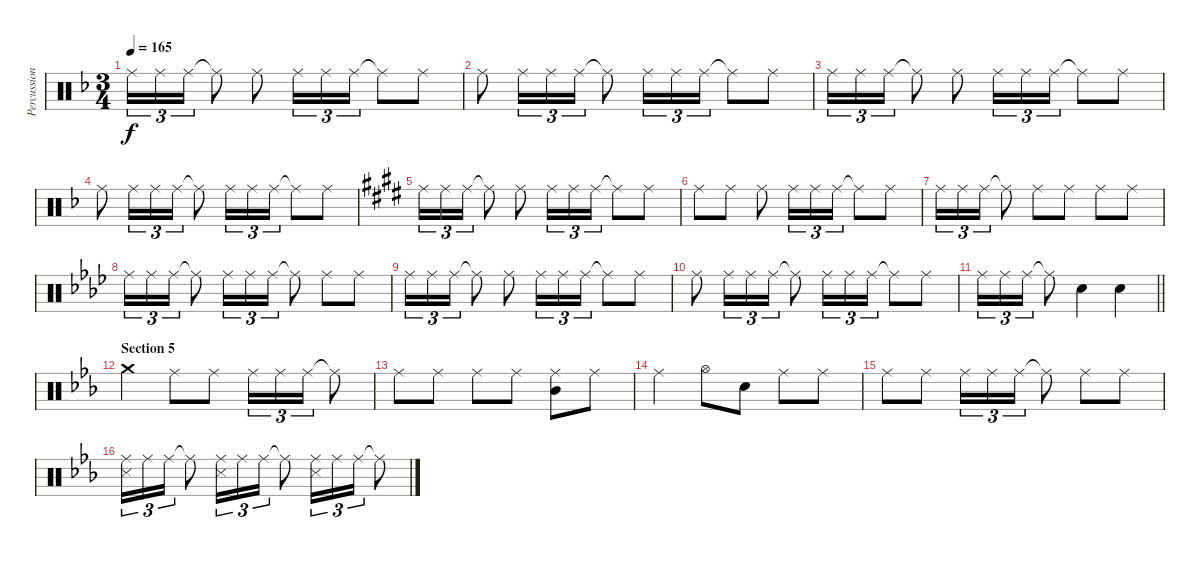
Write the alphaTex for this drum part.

\track ("Percussion" "Percussion") {instrument percussion}
\staff {score}
\articulation defaults
\ts (3 4)
\tempo 165
\clef neutral
\ks f "Ride (middle)".16{tu (3 2) dy f} "Ride (middle)".16{tu (3 2)} "Ride (middle)".16{tu (3 2)} "Ride (middle)"{t}.8 "Ride (middle)".8 "Ride (middle)".16{tu (3 2)} "Ride (middle)".16{tu (3 2)} "Ride (middle)".16{tu (3 2)} "Ride (middle)"{t}.8 "Ride (middle)".8
|
"Ride (middle)".8 "Ride (middle)".16{tu (3 2)} "Ride (middle)".16{tu (3 2)} "Ride (middle)".16{tu (3 2)} "Ride (middle)"{t}.8 "Ride (middle)".16{tu (3 2)} "Ride (middle)".16{tu (3 2)} "Ride (middle)".16{tu (3 2)} "Ride (middle)"{t}.8 "Ride (middle)".8 |
"Ride (middle)".16{tu (3 2)} "Ride (middle)".16{tu (3 2)} "Ride (middle)".16{tu (3 2)} "Ride (middle)"{t}.8 "Ride (middle)".8 "Ride (middle)".16{tu (3 2)} "Ride (middle)".16{tu (3 2)} "Ride (middle)".16{tu (3 2)} "Ride (middle)"{t}.8 "Ride (middle)".8 |
"Ride (middle)".8 "Ride (middle)".16{tu (3 2)} "Ride (middle)".16{tu (3 2)} "Ride (middle)".16{tu (3 2)} "Ride (middle)"{t}.8 "Ride (middle)".16{tu (3 2)} "Ride (middle)".16{tu (3 2)} "Ride (middle)".16{tu (3 2)} "Ride (middle)"{t}.8 "Ride (middle)".8 |
\ks e "Ride (middle)".16{tu (3 2)} "Ride (middle)".16{tu (3 2)} "Ride (middle)".16{tu (3 2)} "Ride (middle)"{t}.8 "Ride (middle)".8 "Ride (middle)".16{tu (3 2)} "Ride (middle)".16{tu (3 2)} "Ride (middle)".16{tu (3 2)} "Ride (middle)"{t}.8 "Ride (middle)".8
|
"Ride (middle)".8 "Ride (middle)".8 "Ride (middle)".8 "Ride (middle)".16{tu (3 2)} "Ride (middle)".16{tu (3 2)} "Ride (middle)".16{tu (3 2)} "Ride (middle)"{t}.8 "Ride (middle)".8 |
"Ride (middle)".16{tu (3 2)} "Ride (middle)".16{tu (3 2)} "Ride (middle)".16{tu (3 2)} "Ride (middle)"{t}.8 "Ride (middle)".8 "Ride (middle)".8 "Ride (middle)".8 "Ride (middle)".8 |
\ks ab "Ride (middle)".16{tu (3 2)} "Ride (middle)".16{tu (3 2)} "Ride (middle)".16{tu (3 2)} "Ride (middle)"{t}.8 "Ride (middle)".16{tu (3 2)} "Ride (middle)".16{tu (3 2)} "Ride (middle)".16{tu (3 2)} "Ride (middle)"{t}.8 "Ride (middle)".8 "Ride (middle)".8
|
"Ride (middle)".16{tu (3 2)} "Ride (middle)".16{tu (3 2)} "Ride (middle)".16{tu (3 2)} "Ride (middle)"{t}.8 "Ride (middle)".8 "Ride (middle)".16{tu (3 2)} "Ride (middle)".16{tu (3 2)} "Ride (middle)".16{tu (3 2)} "Ride (middle)"{t}.8 "Ride (middle)".8 |
"Ride (middle)".8 "Ride (middle)".16{tu (3 2)} "Ride (middle)".16{tu (3 2)} "Ride (middle)".16{tu (3 2)} "Ride (middle)"{t}.8 "Ride (middle)".16{tu (3 2)} "Ride (middle)".16{tu (3 2)} "Ride (middle)".16{tu (3 2)} "Ride (middle)"{t}.8 "Ride (middle)".8 |
\barLineRight lightlight "Ride (middle)".16{tu (3 2)} "Ride (middle)".16{tu (3 2)} "Ride (middle)".16{tu (3 2)} "Ride (middle)"{t}.8 "Snare (hit) 2".4 "Snare (hit) 2".4
|
\section ("" "Section 5")
\ks eb "Crash medium (hit)".4 "Ride (middle)".8 "Ride (middle)".8 "Ride (middle)".16{tu (3 2)} "Ride (middle)".16{tu (3 2)} "Ride (middle)".16{tu (3 2)} "Ride (middle)"{t}.8
|
"Ride (middle)".8 "Ride (middle)".8 "Ride (middle)".8 "Ride (middle)".8 ("Ride (middle)" "Mid Tom (hit)").8 "Ride (middle)".8 |
"Ride (middle)".4 "Hi-Hat (open)".8 "Snare (hit) 2".8 "Ride (middle)".8 "Ride (middle)".8 |
"Ride (middle)".8 "Ride (middle)".8 "Ride (middle)".16{tu (3 2)} "Ride (middle)".16{tu (3 2)} "Ride (middle)".16{tu (3 2)} "Ride (middle)"{t}.8 "Ride (middle)".8 "Ride (middle)".8 |
("Ride (middle)" "Snare (side stick) 3").16{tu (3 2)} "Ride (middle)".16{tu (3 2)} "Ride (middle)".16{tu (3 2)} "Ride (middle)"{t}.8 ("Ride (middle)" "Snare (side stick) 3").16{tu (3 2)} "Ride (middle)".16{tu (3 2)} "Ride (middle)".16{tu (3 2)} "Ride (middle)"{t}.8 ("Ride (middle)" "Snare (side stick) 3").16{tu (3 2)} "Ride (middle)".16{tu (3 2)} "Ride (middle)".16{tu (3 2)} "Ride (middle)"{t}.8
